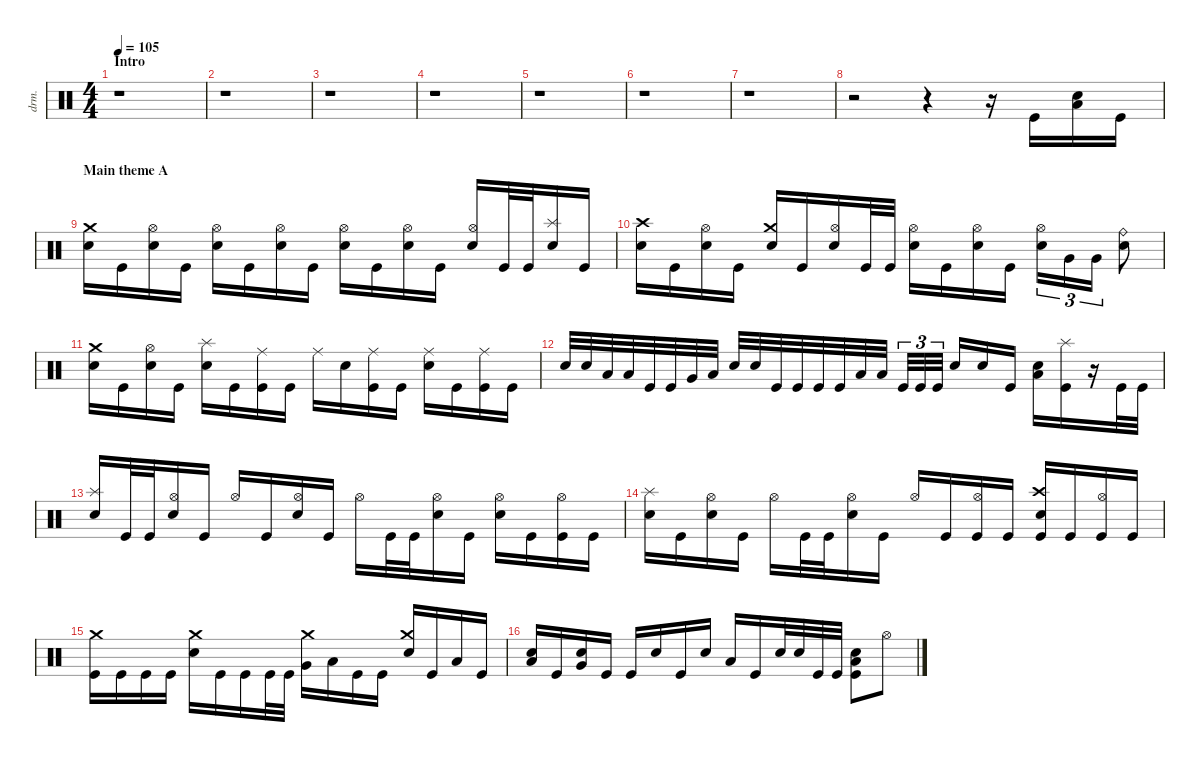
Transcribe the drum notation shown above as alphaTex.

\defaultSystemsLayout 4
\hideDynamics
\bracketExtendMode nobrackets
\otherSystemsTrackNameOrientation horizontal
\track ("Drumkit" "drm.") {instrument percussion}
\staff {score}
\articulation defaults
\ts (4 4)
\section ("" "Intro")
\tempo 105
\clef neutral
\ks c
r.1{dy mf beam Down} |
r.1{beam Down} |
r.1{beam Down} |
r.1{beam Down} |
r.1{beam Down} |
r.1{beam Down} |
r.1{beam Down} |
r.2{beam Down} r.4{beam Down} r.16{beam Down} "Kick (hit)".16{beam Up} ("Electric Snare (hit)" "Low Floor Tom (hit)").16{beam Up} "Kick (hit)".16{beam Up} |
\section ("" "Main theme A")
("Crash medium (hit)" "Electric Snare (hit)").16{beam Down} "Kick (hit)".16{beam Down} ("Hi-Hat (open)" "Electric Snare (hit)").16{beam Down} "Kick (hit)".16{beam Down} ("Hi-Hat (open)" "Electric Snare (hit)").16{beam Down} "Kick (hit)".16{beam Down} ("Hi-Hat (open)" "Electric Snare (hit)").16{beam Down} "Kick (hit)".16{beam Down} ("Hi-Hat (open)" "Electric Snare (hit)").16{beam Down} "Kick (hit)".16{beam Down} ("Hi-Hat (open)" "Electric Snare (hit)").16{beam Down} "Kick (hit)".16{beam Down} ("Electric Snare (hit)" "Hi-Hat (open)").16{beam Up} "Kick (hit)".32{beam Up} "Kick (hit)".32{beam Up} ("Splash (hit)" "Electric Snare (hit)").16{beam Up} "Kick (hit)".16{beam Up} |
("Crash high (hit)" "Electric Snare (hit)").16{beam Down} "Kick (hit)".16{beam Down} ("Hi-Hat (open)" "Electric Snare (hit)").16{beam Down} "Kick (hit)".16{beam Down} ("Crash medium (hit)" "Electric Snare (hit)").16{beam Up} "Kick (hit)".16{beam Up} ("Hi-Hat (open)" "Electric Snare (hit)").16{beam Up} "Kick (hit)".32{beam Up} "Kick (hit)".32{beam Up} ("Hi-Hat (open)" "Electric Snare (hit)").16{beam Down} "Kick (hit)".16{beam Down} ("Hi-Hat (open)" "Electric Snare (hit)").16{beam Down} "Kick (hit)".16{beam Down} ("Hi-Hat (open)" "Electric Snare (hit)").16{tu (3 2) beam Down} "Very Low Tom (hit)".16{tu (3 2) beam Down} "Very Low Tom (hit)".16{tu (3 2) beam Down} ("Ride (bell)" "Electric Snare (hit)").8{beam Down} |
("Crash medium (hit)" "Electric Snare (hit)").16{beam Down} "Kick (hit)".16{beam Down} ("Hi-Hat (open)" "Electric Snare (hit)").16{beam Down} "Kick (hit)".16{beam Down} ("Splash (hit)" "Electric Snare (hit)").16{beam Down} "Kick (hit)".16{beam Down} ("Kick (hit)" "Ride (middle)").16{beam Down} "Kick (hit)".16{beam Down} "Ride (middle)".16{beam Down} "Electric Snare (hit)".16{beam Down} ("Kick (hit)" "Ride (middle)").16{beam Down} "Kick (hit)".16{beam Down} ("Electric Snare (hit)" "Ride (middle)").16{beam Down} "Kick (hit)".16{beam Down} ("Kick (hit)" "Ride (middle)").16{beam Down} "Kick (hit)".16{beam Down} |
"Electric Snare (hit)".32{beam Up} "Electric Snare (hit)".32{beam Up} "Low Tom (hit)".32{beam Up} "Low Tom (hit)".32{beam Up} "Kick (hit)".32{beam Up} "Kick (hit)".32{beam Up} "Very Low Tom (hit)".32{beam Up} "Low Floor Tom (hit)".32{beam Up} "Electric Snare (hit)".32{beam Up} "Electric Snare (hit)".32{beam Up} "Kick (hit)".32{beam Up} "Kick (hit)".32{beam Up} "Kick (hit)".32{beam Up} "Kick (hit)".32{beam Up} "Low Tom (hit)".32{beam Up} "Low Tom (hit)".32{beam Up} "Kick (hit)".32{tu (3 2) beam Up} "Kick (hit)".32{tu (3 2) beam Up} "Kick (hit)".32{tu (3 2) beam Up} "Electric Snare (hit)".16{beam Up} "Electric Snare (hit)".16{beam Up} "Kick (hit)".16{beam Up} ("Electric Snare (hit)" "Low Floor Tom (hit)").16{beam Down} ("Kick (hit)" "Splash (hit)").16{beam Down} r.16{beam Down} "Kick (hit)".32{beam Down} "Kick (hit)".32{beam Down} |
("Splash (hit)" "Electric Snare (hit)").16{beam Up} "Kick (hit)".32{beam Up} "Kick (hit)".32{beam Up} ("Hi-Hat (open)" "Electric Snare (hit)").16{beam Up} "Kick (hit)".16{beam Up} "Hi-Hat (open)".16{beam Up} "Kick (hit)".16{beam Up} ("Electric Snare (hit)" "Hi-Hat (open)").16{beam Up} "Kick (hit)".16{beam Up} "Hi-Hat (open)".16{beam Down} "Kick (hit)".32{beam Down} "Kick (hit)".32{beam Down} ("Electric Snare (hit)" "Hi-Hat (open)").16{beam Down} "Kick (hit)".16{beam Down} ("Electric Snare (hit)" "Hi-Hat (open)").16{beam Down} "Kick (hit)".16{beam Down} ("Kick (hit)" "Hi-Hat (open)").16{beam Down} "Kick (hit)".16{beam Down} |
("Electric Snare (hit)" "Splash (hit)").16{beam Down} "Kick (hit)".16{beam Down} ("Electric Snare (hit)" "Hi-Hat (open)").16{beam Down} "Kick (hit)".16{beam Down} "Hi-Hat (open)".16{beam Down} "Kick (hit)".32{beam Down} "Kick (hit)".32{beam Down} ("Electric Snare (hit)" "Hi-Hat (open)").16{beam Down} "Kick (hit)".16{beam Down} "Hi-Hat (open)".16{beam Up} "Kick (hit)".16{beam Up} ("Kick (hit)" "Hi-Hat (open)").16{beam Up} "Kick (hit)".16{beam Up} ("Electric Snare (hit)" "Crash high (hit)" "Kick (hit)").16{beam Up} "Kick (hit)".16{beam Up} ("Hi-Hat (open)" "Kick (hit)").16{beam Up} "Kick (hit)".16{beam Up} |
("Crash medium (hit)" "Kick (hit)").16{beam Down} "Kick (hit)".16{beam Down} "Kick (hit)".16{beam Down} "Kick (hit)".16{beam Down} ("Crash medium (hit)" "Electric Snare (hit)").16{beam Down} "Kick (hit)".16{beam Down} "Kick (hit)".16{beam Down} "Kick (hit)".32{beam Down} "Kick (hit)".32{beam Down} ("Very Low Tom (hit)" "Crash medium (hit)").16{beam Down} "Low Tom (hit)".16{beam Down} "Kick (hit)".16{beam Down} "Kick (hit)".16{beam Down} ("Crash medium (hit)" "Electric Snare (hit)").16{beam Up} "Kick (hit)".16{beam Up} "Low Floor Tom (hit)".16{beam Up} "Kick (hit)".16{beam Up} |
("Electric Snare (hit)" "Low Tom (hit)").16{beam Up} "Kick (hit)".16{beam Up} ("Very Low Tom (hit)" "Electric Snare (hit)").16{beam Up} "Kick (hit)".16{beam Up} "Kick (hit)".16{beam Up} "Electric Snare (hit)".16{beam Up} "Kick (hit)".16{beam Up} "Electric Snare (hit)".16{beam Up} "Low Tom (hit)".16{beam Up} "Kick (hit)".16{beam Up} "Electric Snare (hit)".32{beam Up} "Electric Snare (hit)".32{beam Up} "Kick (hit)".32{beam Up} "Kick (hit)".32{beam Up} ("Electric Snare (hit)" "Low Floor Tom (hit)" "Kick (hit)").8{beam Down} "Hi-Hat (open)".8{beam Down}
